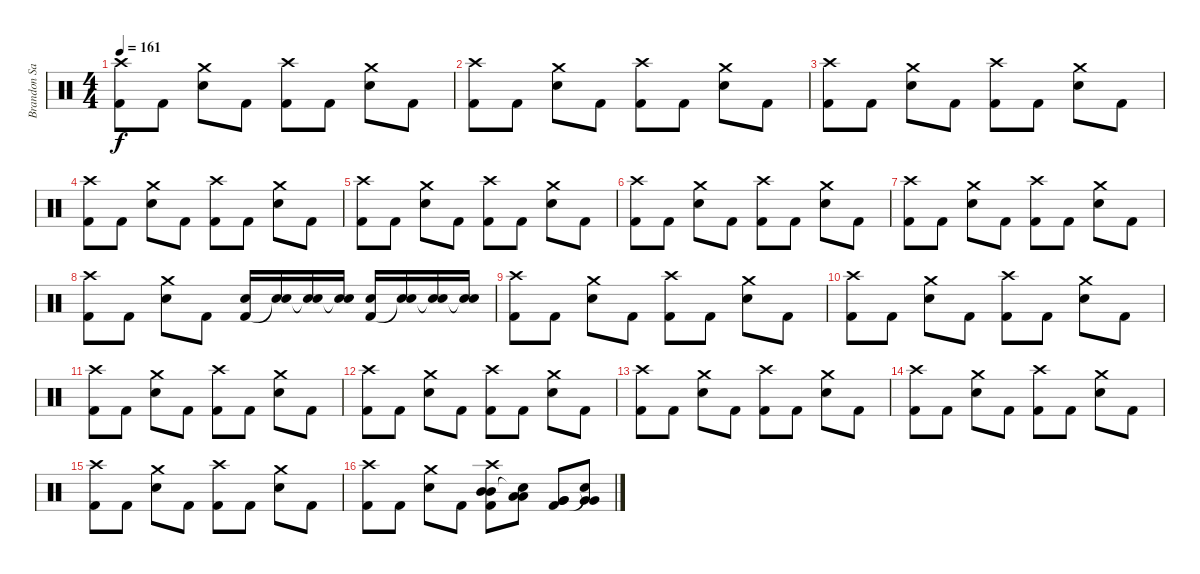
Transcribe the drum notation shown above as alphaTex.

\track ("Brandon Saller" "Brandon Sa") {instrument percussion}
\staff {score}
\articulation defaults
\ts (4 4)
\tempo 161
\clef neutral
\ks c
("Crash high (hit)" "Kick (hit) 2").8{dy f} "Kick (hit) 2".8 ("Crash medium (hit)" "Electric Snare (hit)").8 "Kick (hit) 2".8 ("Crash high (hit)" "Kick (hit) 2").8 "Kick (hit) 2".8 ("Crash medium (hit)" "Electric Snare (hit)").8 "Kick (hit) 2".8 |
("Crash high (hit)" "Kick (hit) 2").8 "Kick (hit) 2".8 ("Crash medium (hit)" "Electric Snare (hit)").8 "Kick (hit) 2".8 ("Crash high (hit)" "Kick (hit) 2").8 "Kick (hit) 2".8 ("Crash medium (hit)" "Electric Snare (hit)").8 "Kick (hit) 2".8 |
("Crash high (hit)" "Kick (hit) 2").8 "Kick (hit) 2".8 ("Crash medium (hit)" "Electric Snare (hit)").8 "Kick (hit) 2".8 ("Crash high (hit)" "Kick (hit) 2").8 "Kick (hit) 2".8 ("Crash medium (hit)" "Electric Snare (hit)").8 "Kick (hit) 2".8 |
("Crash high (hit)" "Kick (hit) 2").8 "Kick (hit) 2".8 ("Crash medium (hit)" "Electric Snare (hit)").8 "Kick (hit) 2".8 ("Crash high (hit)" "Kick (hit) 2").8 "Kick (hit) 2".8 ("Crash medium (hit)" "Electric Snare (hit)").8 "Kick (hit) 2".8 |
("Crash high (hit)" "Kick (hit) 2").8 "Kick (hit) 2".8 ("Crash medium (hit)" "Electric Snare (hit)").8 "Kick (hit) 2".8 ("Crash high (hit)" "Kick (hit) 2").8 "Kick (hit) 2".8 ("Crash medium (hit)" "Electric Snare (hit)").8 "Kick (hit) 2".8 |
("Crash high (hit)" "Kick (hit) 2").8 "Kick (hit) 2".8 ("Crash medium (hit)" "Electric Snare (hit)").8 "Kick (hit) 2".8 ("Crash high (hit)" "Kick (hit) 2").8 "Kick (hit) 2".8 ("Crash medium (hit)" "Electric Snare (hit)").8 "Kick (hit) 2".8 |
("Crash high (hit)" "Kick (hit) 2").8 "Kick (hit) 2".8 ("Crash medium (hit)" "Electric Snare (hit)").8 "Kick (hit) 2".8 ("Crash high (hit)" "Kick (hit) 2").8 "Kick (hit) 2".8 ("Crash medium (hit)" "Electric Snare (hit)").8 "Kick (hit) 2".8 |
("Crash high (hit)" "Kick (hit) 2").8 "Kick (hit) 2".8 ("Crash medium (hit)" "Electric Snare (hit)").8 "Kick (hit) 2".8 ("Snare (hit) 2" "Kick (hit) 2").16 ("Snare (hit) 2" "Snare (hit)"{t}).16 ("Snare (hit) 2" "Snare (hit)"{t}).16 ("Snare (hit) 2" "Snare (hit)"{t}).16 ("Snare (hit) 2" "Kick (hit) 2").16 ("Snare (hit) 2" "Snare (hit)"{t}).16 ("Snare (hit) 2" "Snare (hit)"{t}).16 ("Snare (hit) 2" "Snare (hit)"{t}).16 |
("Crash high (hit)" "Kick (hit) 2").8 "Kick (hit) 2".8 ("Crash medium (hit)" "Electric Snare (hit)").8 "Kick (hit) 2".8 ("Crash high (hit)" "Kick (hit) 2").8 "Kick (hit) 2".8 ("Crash medium (hit)" "Electric Snare (hit)").8 "Kick (hit) 2".8 |
("Crash high (hit)" "Kick (hit) 2").8 "Kick (hit) 2".8 ("Crash medium (hit)" "Electric Snare (hit)").8 "Kick (hit) 2".8 ("Crash high (hit)" "Kick (hit) 2").8 "Kick (hit) 2".8 ("Crash medium (hit)" "Electric Snare (hit)").8 "Kick (hit) 2".8 |
("Crash high (hit)" "Kick (hit) 2").8 "Kick (hit) 2".8 ("Crash medium (hit)" "Electric Snare (hit)").8 "Kick (hit) 2".8 ("Crash high (hit)" "Kick (hit) 2").8 "Kick (hit) 2".8 ("Crash medium (hit)" "Electric Snare (hit)").8 "Kick (hit) 2".8 |
("Crash high (hit)" "Kick (hit) 2").8 "Kick (hit) 2".8 ("Crash medium (hit)" "Electric Snare (hit)").8 "Kick (hit) 2".8 ("Crash high (hit)" "Kick (hit) 2").8 "Kick (hit) 2".8 ("Crash medium (hit)" "Electric Snare (hit)").8 "Kick (hit) 2".8 |
("Crash high (hit)" "Kick (hit) 2").8 "Kick (hit) 2".8 ("Crash medium (hit)" "Electric Snare (hit)").8 "Kick (hit) 2".8 ("Crash high (hit)" "Kick (hit) 2").8 "Kick (hit) 2".8 ("Crash medium (hit)" "Electric Snare (hit)").8 "Kick (hit) 2".8 |
("Crash high (hit)" "Kick (hit) 2").8 "Kick (hit) 2".8 ("Crash medium (hit)" "Electric Snare (hit)").8 "Kick (hit) 2".8 ("Crash high (hit)" "Kick (hit) 2").8 "Kick (hit) 2".8 ("Crash medium (hit)" "Electric Snare (hit)").8 "Kick (hit) 2".8 |
("Crash high (hit)" "Kick (hit) 2").8 "Kick (hit) 2".8 ("Crash medium (hit)" "Electric Snare (hit)").8 "Kick (hit) 2".8 ("Crash high (hit)" "Kick (hit) 2").8 "Kick (hit) 2".8 ("Crash medium (hit)" "Electric Snare (hit)").8 "Kick (hit) 2".8 |
("Crash high (hit)" "Kick (hit) 2").8 "Kick (hit) 2".8 ("Crash medium (hit)" "Electric Snare (hit)").8 "Kick (hit) 2".8 ("Crash high (hit)" "Mid Tom (hit)" "Mid Tom (hit)" "Kick (hit) 2").8 ("Low Tom (hit)" "Low Tom (hit)" "Snare (hit)"{t}).8 ("Very Low Tom (hit)" "Very Low Tom (hit)" "Kick (hit) 2").8 ("Very Low Tom (hit)" "Very Low Tom (hit)" "Snare (hit)"{t}).8
